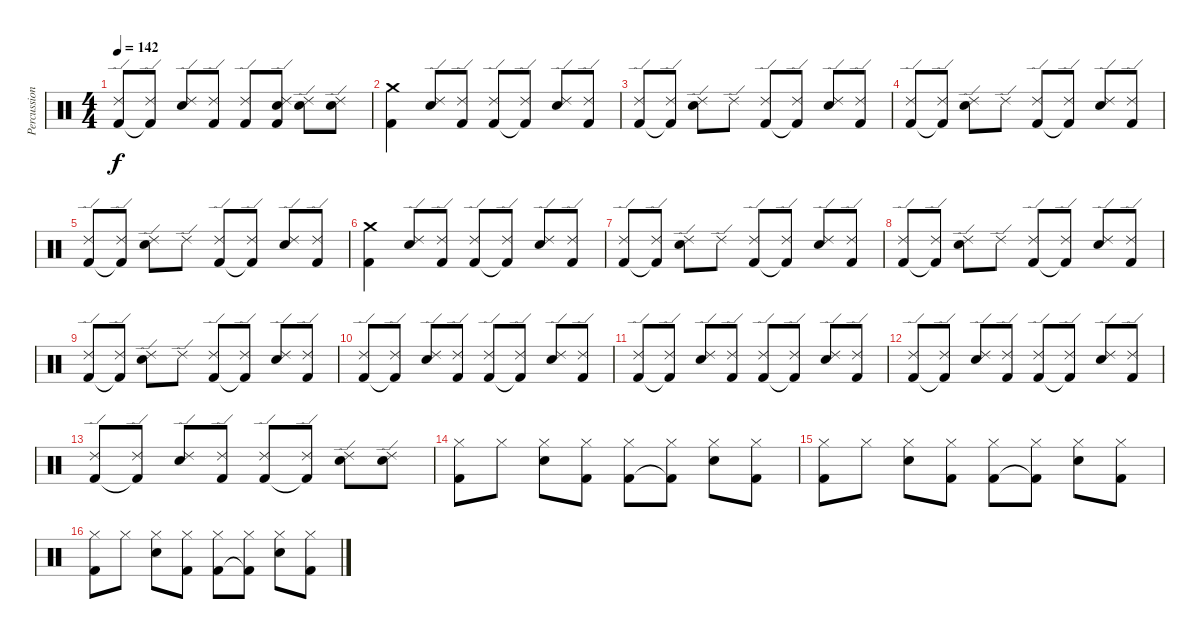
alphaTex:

\track ("Percussion" "Percussion") {instrument percussion}
\staff {score}
\articulation defaults
\ts (4 4)
\tempo 142
\clef neutral
\ks c
("Ride (edge) 2" "Kick (hit) 2").8{dy f} ("Ride (edge) 2" "Kick (hit) 2"{t}).8 ("Ride (edge) 2" "Snare (hit) 2").8 ("Ride (edge) 2" "Kick (hit) 2").8 ("Ride (edge) 2" "Kick (hit) 2").8 ("Ride (edge) 2" "Snare (hit) 2" "Kick (hit) 2").8 ("Ride (edge) 2" "Snare (hit) 2").8 ("Ride (edge) 2" "Snare (hit) 2").8 |
("Crash medium (hit)" "Kick (hit) 2").4 ("Ride (edge) 2" "Snare (hit) 2").8 ("Ride (edge) 2" "Kick (hit) 2").8 ("Ride (edge) 2" "Kick (hit) 2").8 ("Ride (edge) 2" "Kick (hit) 2"{t}).8 ("Ride (edge) 2" "Snare (hit) 2").8 ("Ride (edge) 2" "Kick (hit) 2").8 |
("Ride (edge) 2" "Kick (hit) 2").8 ("Ride (edge) 2" "Kick (hit) 2"{t}).8 ("Ride (edge) 2" "Snare (hit) 2").8 "Ride (edge) 2".8 ("Ride (edge) 2" "Kick (hit) 2").8 ("Ride (edge) 2" "Kick (hit) 2"{t}).8 ("Ride (edge) 2" "Snare (hit) 2").8 ("Ride (edge) 2" "Kick (hit) 2").8 |
("Ride (edge) 2" "Kick (hit) 2").8 ("Ride (edge) 2" "Kick (hit) 2"{t}).8 ("Ride (edge) 2" "Snare (hit) 2").8 "Ride (edge) 2".8 ("Ride (edge) 2" "Kick (hit) 2").8 ("Ride (edge) 2" "Kick (hit) 2"{t}).8 ("Ride (edge) 2" "Snare (hit) 2").8 ("Ride (edge) 2" "Kick (hit) 2").8 |
("Ride (edge) 2" "Kick (hit) 2").8 ("Ride (edge) 2" "Kick (hit) 2"{t}).8 ("Ride (edge) 2" "Snare (hit) 2").8 "Ride (edge) 2".8 ("Ride (edge) 2" "Kick (hit) 2").8 ("Ride (edge) 2" "Kick (hit) 2"{t}).8 ("Ride (edge) 2" "Snare (hit) 2").8 ("Ride (edge) 2" "Kick (hit) 2").8 |
("Crash medium (hit)" "Kick (hit) 2").4 ("Ride (edge) 2" "Snare (hit) 2").8 ("Ride (edge) 2" "Kick (hit) 2").8 ("Ride (edge) 2" "Kick (hit) 2").8 ("Ride (edge) 2" "Kick (hit) 2"{t}).8 ("Ride (edge) 2" "Snare (hit) 2").8 ("Ride (edge) 2" "Kick (hit) 2").8 |
("Ride (edge) 2" "Kick (hit) 2").8 ("Ride (edge) 2" "Kick (hit) 2"{t}).8 ("Ride (edge) 2" "Snare (hit) 2").8 "Ride (edge) 2".8 ("Ride (edge) 2" "Kick (hit) 2").8 ("Ride (edge) 2" "Kick (hit) 2"{t}).8 ("Ride (edge) 2" "Snare (hit) 2").8 ("Ride (edge) 2" "Kick (hit) 2").8 |
("Ride (edge) 2" "Kick (hit) 2").8 ("Ride (edge) 2" "Kick (hit) 2"{t}).8 ("Ride (edge) 2" "Snare (hit) 2").8 "Ride (edge) 2".8 ("Ride (edge) 2" "Kick (hit) 2").8 ("Ride (edge) 2" "Kick (hit) 2"{t}).8 ("Ride (edge) 2" "Snare (hit) 2").8 ("Ride (edge) 2" "Kick (hit) 2").8 |
("Ride (edge) 2" "Kick (hit) 2").8 ("Ride (edge) 2" "Kick (hit) 2"{t}).8 ("Ride (edge) 2" "Snare (hit) 2").8 "Ride (edge) 2".8 ("Ride (edge) 2" "Kick (hit) 2").8 ("Ride (edge) 2" "Kick (hit) 2"{t}).8 ("Ride (edge) 2" "Snare (hit) 2").8 ("Ride (edge) 2" "Kick (hit) 2").8 |
("Ride (edge) 2" "Kick (hit) 2").8 ("Ride (edge) 2" "Kick (hit) 2"{t}).8 ("Ride (edge) 2" "Snare (hit) 2").8 ("Ride (edge) 2" "Kick (hit) 2").8 ("Ride (edge) 2" "Kick (hit) 2").8 ("Ride (edge) 2" "Kick (hit) 2"{t}).8 ("Ride (edge) 2" "Snare (hit) 2").8 ("Ride (edge) 2" "Kick (hit) 2").8 |
("Ride (edge) 2" "Kick (hit) 2").8 ("Ride (edge) 2" "Kick (hit) 2"{t}).8 ("Ride (edge) 2" "Snare (hit) 2").8 ("Ride (edge) 2" "Kick (hit) 2").8 ("Ride (edge) 2" "Kick (hit) 2").8 ("Ride (edge) 2" "Kick (hit) 2"{t}).8 ("Ride (edge) 2" "Snare (hit) 2").8 ("Ride (edge) 2" "Kick (hit) 2").8 |
("Ride (edge) 2" "Kick (hit) 2").8 ("Ride (edge) 2" "Kick (hit) 2"{t}).8 ("Ride (edge) 2" "Snare (hit) 2").8 ("Ride (edge) 2" "Kick (hit) 2").8 ("Ride (edge) 2" "Kick (hit) 2").8 ("Ride (edge) 2" "Kick (hit) 2"{t}).8 ("Ride (edge) 2" "Snare (hit) 2").8 ("Ride (edge) 2" "Kick (hit) 2").8 |
("Ride (edge) 2" "Kick (hit) 2").8 ("Ride (edge) 2" "Kick (hit) 2"{t}).8 ("Ride (edge) 2" "Snare (hit) 2").8 ("Ride (edge) 2" "Kick (hit) 2").8 ("Ride (edge) 2" "Kick (hit) 2").8 ("Ride (edge) 2" "Kick (hit) 2"{t}).8 ("Ride (edge) 2" "Snare (hit) 2").8 ("Ride (edge) 2" "Snare (hit) 2").8 |
("Hi-Hat (closed)" "Kick (hit) 2").8 "Hi-Hat (closed)".8 ("Hi-Hat (closed)" "Snare (hit) 2").8 ("Hi-Hat (closed)" "Kick (hit) 2").8 ("Hi-Hat (closed)" "Kick (hit) 2").8 ("Hi-Hat (closed)" "Kick (hit) 2"{t}).8 ("Hi-Hat (closed)" "Snare (hit) 2").8 ("Hi-Hat (closed)" "Kick (hit) 2").8 |
("Hi-Hat (closed)" "Kick (hit) 2").8 "Hi-Hat (closed)".8 ("Hi-Hat (closed)" "Snare (hit) 2").8 ("Hi-Hat (closed)" "Kick (hit) 2").8 ("Hi-Hat (closed)" "Kick (hit) 2").8 ("Hi-Hat (closed)" "Kick (hit) 2"{t}).8 ("Hi-Hat (closed)" "Snare (hit) 2").8 ("Hi-Hat (closed)" "Kick (hit) 2").8 |
("Hi-Hat (closed)" "Kick (hit) 2").8 "Hi-Hat (closed)".8 ("Hi-Hat (closed)" "Snare (hit) 2").8 ("Hi-Hat (closed)" "Kick (hit) 2").8 ("Hi-Hat (closed)" "Kick (hit) 2").8 ("Hi-Hat (closed)" "Kick (hit) 2"{t}).8 ("Hi-Hat (closed)" "Snare (hit) 2").8 ("Hi-Hat (closed)" "Kick (hit) 2").8
